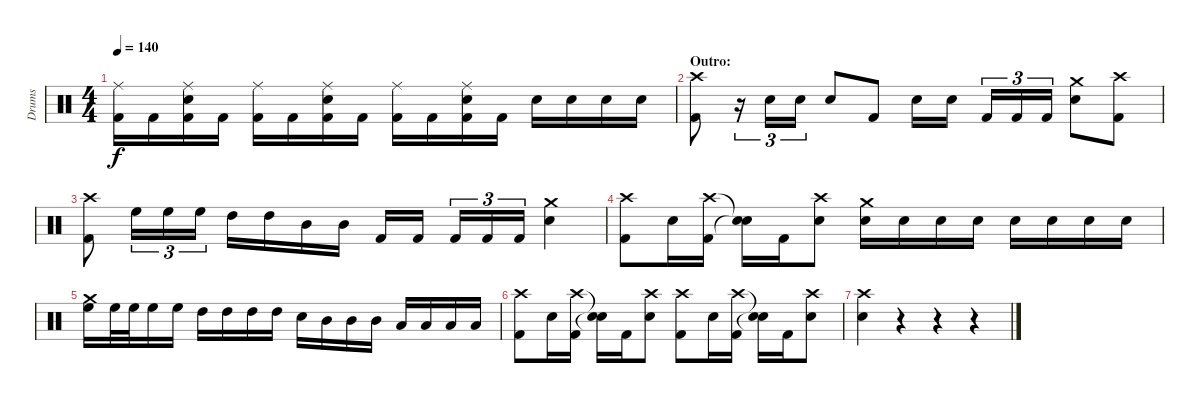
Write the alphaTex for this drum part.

\track ("Drums" "Drums") {instrument percussion}
\staff {score}
\articulation defaults
\ts (4 4)
\tempo 140
\clef neutral
\ks c
("Ride (middle)" "Kick (hit) 2").16{dy f} "Kick (hit) 2".16 ("Ride (middle)" "Snare (hit) 2" "Kick (hit) 2").16 "Kick (hit) 2".16 ("Ride (middle)" "Kick (hit) 2").16 "Kick (hit) 2".16 ("Ride (middle)" "Snare (hit) 2" "Kick (hit) 2").16 "Kick (hit) 2".16 ("Ride (middle)" "Kick (hit) 2").16 "Kick (hit) 2".16 ("Ride (middle)" "Snare (hit) 2" "Kick (hit) 2").16 "Kick (hit) 2".16 "Snare (hit) 2".16 "Snare (hit) 2".16 "Snare (hit) 2".16 "Snare (hit) 2".16 |
\section ("" "Outro:")
("Crash high (hit)" "Kick (hit) 2").8 r.16{tu (3 2)} "Snare (hit) 2".16{tu (3 2)} "Snare (hit) 2".16{tu (3 2)} "Snare (hit) 2".8 "Kick (hit) 2".8 "Snare (hit) 2".16 "Snare (hit) 2".16 "Kick (hit) 2".16{tu (3 2)} "Kick (hit) 2".16{tu (3 2)} "Kick (hit) 2".16{tu (3 2)} ("Crash medium (hit)" "Snare (hit) 2").8 ("Crash high (hit)" "Kick (hit) 2").8 |
("Crash high (hit)" "Kick (hit) 2").8 "High Floor Tom (hit)".16{tu (3 2)} "High Floor Tom (hit)".16{tu (3 2)} "High Floor Tom (hit)".16{tu (3 2)} "High Tom (hit)".16 "High Tom (hit)".16 "Mid Tom (hit)".16 "Mid Tom (hit)".16 "Kick (hit) 2".16 "Kick (hit) 2".16 "Kick (hit) 2".16{tu (3 2)} "Kick (hit) 2".16{tu (3 2)} "Kick (hit) 2".16{tu (3 2)} ("Crash medium (hit)" "Snare (hit) 2").4 |
("Crash high (hit)" "Kick (hit) 2").8 "Snare (hit) 2".16 ("Crash high (hit)" "Kick (hit) 2").16 ("Snare (hit)"{t} "Snare (hit)"{t}).16 "Kick (hit) 2".16 ("Crash high (hit)" "Snare (hit) 2").8 ("Crash medium (hit)" "Snare (hit) 2").16 "Snare (hit) 2".16 "Snare (hit) 2".16 "Snare (hit) 2".16 "Snare (hit) 2".16 "Snare (hit) 2".16 "Snare (hit) 2".16 "Snare (hit) 2".16 |
("Crash medium (hit)" "High Floor Tom (hit)").16 "High Floor Tom (hit)".32 "High Floor Tom (hit)".32 "High Floor Tom (hit)".16 "High Floor Tom (hit)".16 "High Tom (hit)".16 "High Tom (hit)".16 "High Tom (hit)".16 "High Tom (hit)".16 "Snare (hit) 2".16 "Mid Tom (hit)".16 "Mid Tom (hit)".16 "Mid Tom (hit)".16 "Low Tom (hit)".16 "Low Tom (hit)".16 "Low Tom (hit)".16 "Low Tom (hit)".16 |
("Crash high (hit)" "Kick (hit) 2").8 "Snare (hit) 2".16 ("Crash high (hit)" "Kick (hit) 2").16 ("Snare (hit)"{t} "Snare (hit)"{t}).16 "Kick (hit) 2".16 ("Crash high (hit)" "Snare (hit) 2").8 ("Crash high (hit)" "Kick (hit) 2").8 "Snare (hit) 2".16 ("Crash high (hit)" "Kick (hit) 2").16 ("Snare (hit)"{t} "Snare (hit)"{t}).16 "Kick (hit) 2".16 ("Crash high (hit)" "Snare (hit) 2").8 |
("Crash high (hit)" "Snare (hit) 2").4 r.4 r.4 r.4
